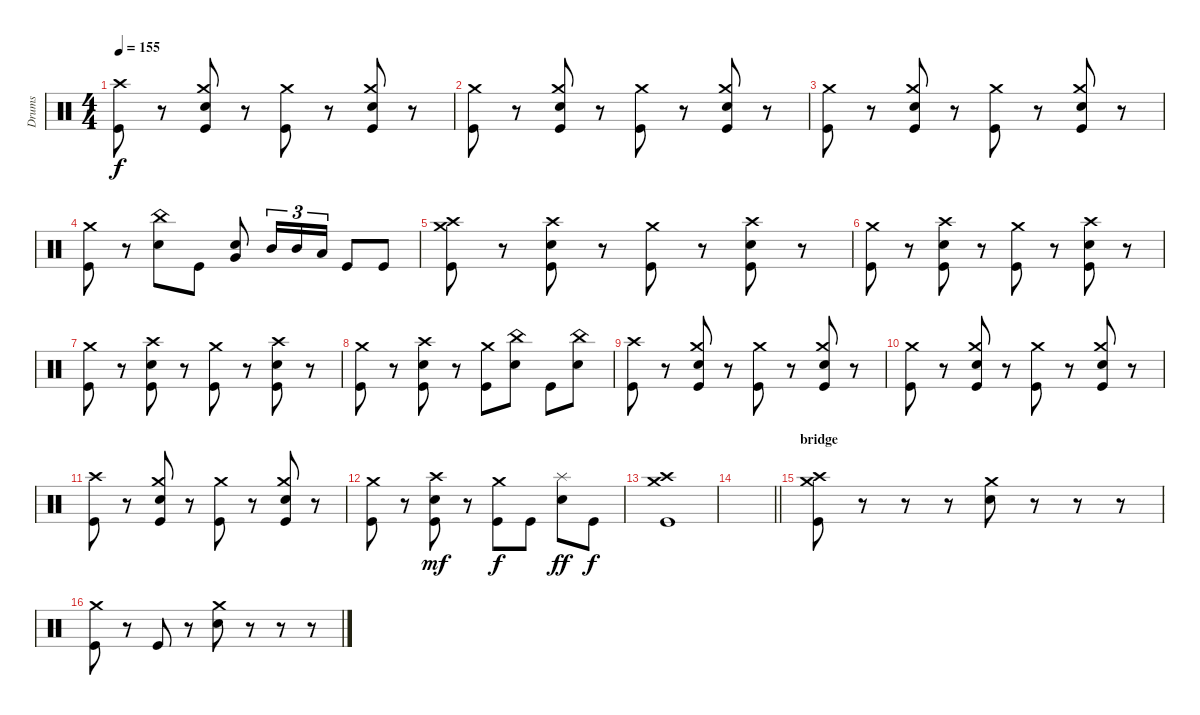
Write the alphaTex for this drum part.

\track ("Drums" "Drums") {instrument percussion}
\staff {score}
\articulation defaults
\ts (4 4)
\tempo 155
\clef neutral
\ks c
("Crash high (hit)" "Kick (hit)").8{dy f} r.8 ("Crash medium (hit)" "Electric Snare (hit)" "Kick (hit)").8 r.8 ("Crash medium (hit)" "Kick (hit)").8 r.8 ("Crash medium (hit)" "Electric Snare (hit)" "Kick (hit)").8 r.8 |
("Crash medium (hit)" "Kick (hit)").8 r.8 ("Crash medium (hit)" "Electric Snare (hit)" "Kick (hit)").8 r.8 ("Crash medium (hit)" "Kick (hit)").8 r.8 ("Crash medium (hit)" "Electric Snare (hit)" "Kick (hit)").8 r.8 |
("Crash medium (hit)" "Kick (hit)").8 r.8 ("Crash medium (hit)" "Electric Snare (hit)" "Kick (hit)").8 r.8 ("Crash medium (hit)" "Kick (hit)").8 r.8 ("Crash medium (hit)" "Electric Snare (hit)" "Kick (hit)").8 r.8 |
("Crash medium (hit)" "Kick (hit)").8 r.8 ("China (hit)" "Electric Snare (hit)").8 "Kick (hit)".8 ("Very Low Tom (hit)" "Electric Snare (hit)").8 "Mid Tom (hit)".16{tu (3 2)} "Mid Tom (hit)".16{tu (3 2)} "Low Tom (hit)".16{tu (3 2)} "Kick (hit)".8 "Kick (hit)".8 |
("Crash high (hit)" "Crash medium (hit)" "Kick (hit)").8 r.8 ("Crash high (hit)" "Electric Snare (hit)" "Kick (hit)").8 r.8 ("Crash medium (hit)" "Kick (hit)").8 r.8 ("Crash high (hit)" "Electric Snare (hit)" "Kick (hit)").8 r.8 |
("Crash medium (hit)" "Kick (hit)").8 r.8 ("Crash high (hit)" "Electric Snare (hit)" "Kick (hit)").8 r.8 ("Crash medium (hit)" "Kick (hit)").8 r.8 ("Crash high (hit)" "Electric Snare (hit)" "Kick (hit)").8 r.8 |
("Crash medium (hit)" "Kick (hit)").8 r.8 ("Crash high (hit)" "Electric Snare (hit)" "Kick (hit)").8 r.8 ("Crash medium (hit)" "Kick (hit)").8 r.8 ("Crash high (hit)" "Electric Snare (hit)" "Kick (hit)").8 r.8 |
("Crash medium (hit)" "Kick (hit)").8 r.8 ("Crash high (hit)" "Electric Snare (hit)" "Kick (hit)").8 r.8 ("Crash medium (hit)" "Kick (hit)").8 ("China (hit)" "Electric Snare (hit)").8 "Kick (hit)".8 ("China (hit)" "Electric Snare (hit)").8 |
("Crash high (hit)" "Kick (hit)").8 r.8 ("Crash medium (hit)" "Electric Snare (hit)" "Kick (hit)").8 r.8 ("Crash medium (hit)" "Kick (hit)").8 r.8 ("Crash medium (hit)" "Electric Snare (hit)" "Kick (hit)").8 r.8 |
("Crash medium (hit)" "Kick (hit)").8 r.8 ("Crash medium (hit)" "Electric Snare (hit)" "Kick (hit)").8 r.8 ("Crash medium (hit)" "Kick (hit)").8 r.8 ("Crash medium (hit)" "Electric Snare (hit)" "Kick (hit)").8 r.8 |
("Crash high (hit)" "Kick (hit)").8 r.8 ("Crash medium (hit)" "Electric Snare (hit)" "Kick (hit)").8 r.8 ("Crash medium (hit)" "Kick (hit)").8 r.8 ("Crash medium (hit)" "Electric Snare (hit)" "Kick (hit)").8 r.8 |
("Crash medium (hit)" "Kick (hit)").8 r.8 ("Crash high (hit)" "Electric Snare (hit)" "Kick (hit)").8{dy mf} r.8 ("Crash medium (hit)" "Kick (hit)").8{dy f} "Kick (hit)".8 ("Splash (hit)" "Electric Snare (hit)").8{dy ff} "Kick (hit)".8{dy f} |
("Crash high (hit)" "Crash medium (hit)" "Kick (hit)").1 |
\barLineRight lightlight
|
\section ("" "bridge")
("Crash high (hit)" "Crash medium (hit)" "Kick (hit)").8 r.8 r.8 r.8 ("Crash medium (hit)" "Electric Snare (hit)").8 r.8 r.8 r.8 |
("Crash medium (hit)" "Kick (hit)").8 r.8 "Kick (hit)".8 r.8 ("Crash medium (hit)" "Electric Snare (hit)").8 r.8 r.8 r.8
